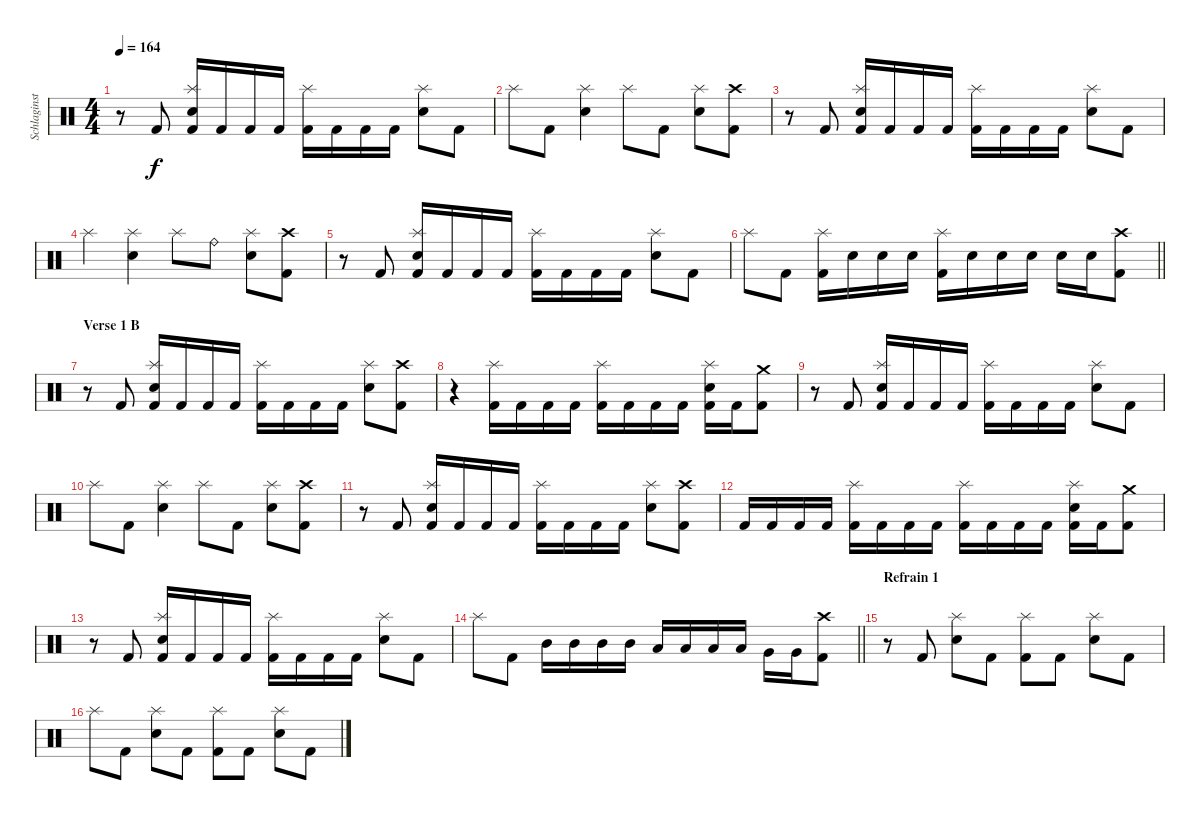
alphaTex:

\track ("Schlaginstrumente - Auswahl" "Schlaginst") {instrument percussion}
\staff {score}
\articulation defaults
\ts (4 4)
\tempo 164
\clef neutral
\ks c
r.8{dy f} "Kick (hit) 2".8 ("Splash (hit)" "Electric Snare (hit)" "Kick (hit) 2").16 "Kick (hit) 2".16 "Kick (hit) 2".16 "Kick (hit) 2".16 ("Splash (hit)" "Kick (hit) 2").16 "Kick (hit) 2".16 "Kick (hit) 2".16 "Kick (hit) 2".16 ("Splash (hit)" "Electric Snare (hit)").8 "Kick (hit) 2".8 |
"Splash (hit)".8 "Kick (hit) 2".8 ("Splash (hit)" "Electric Snare (hit)").4 "Splash (hit)".8 "Kick (hit) 2".8 ("Splash (hit)" "Electric Snare (hit)").8 ("Crash high (hit)" "Kick (hit) 2").8 |
r.8 "Kick (hit) 2".8 ("Splash (hit)" "Electric Snare (hit)" "Kick (hit) 2").16 "Kick (hit) 2".16 "Kick (hit) 2".16 "Kick (hit) 2".16 ("Splash (hit)" "Kick (hit) 2").16 "Kick (hit) 2".16 "Kick (hit) 2".16 "Kick (hit) 2".16 ("Splash (hit)" "Electric Snare (hit)").8 "Kick (hit) 2".8 |
"Splash (hit)".4 ("Splash (hit)" "Electric Snare (hit)").4 "Splash (hit)".8 "Ride (bell)".8 ("Splash (hit)" "Electric Snare (hit)").8 ("Crash high (hit)" "Kick (hit) 2").8 |
r.8 "Kick (hit) 2".8 ("Splash (hit)" "Electric Snare (hit)" "Kick (hit) 2").16 "Kick (hit) 2".16 "Kick (hit) 2".16 "Kick (hit) 2".16 ("Splash (hit)" "Kick (hit) 2").16 "Kick (hit) 2".16 "Kick (hit) 2".16 "Kick (hit) 2".16 ("Splash (hit)" "Electric Snare (hit)").8 "Kick (hit) 2".8 |
\barLineRight lightlight "Splash (hit)".8 "Kick (hit) 2".8
("Splash (hit)" "Kick (hit) 2").16 "Electric Snare (hit)".16 "Electric Snare (hit)".16 "Electric Snare (hit)".16 ("Splash (hit)" "Kick (hit) 2").16 "Electric Snare (hit)".16 "Electric Snare (hit)".16 "Electric Snare (hit)".16 "Electric Snare (hit)".16 "Electric Snare (hit)".16 ("Crash high (hit)" "Kick (hit) 2").8 |
\section ("" "Verse 1 B")
r.8 "Kick (hit) 2".8 ("Splash (hit)" "Electric Snare (hit)" "Kick (hit) 2").16 "Kick (hit) 2".16 "Kick (hit) 2".16 "Kick (hit) 2".16 ("Splash (hit)" "Kick (hit) 2").16 "Kick (hit) 2".16 "Kick (hit) 2".16 "Kick (hit) 2".16 ("Splash (hit)" "Electric Snare (hit)").8 ("Crash high (hit)" "Kick (hit) 2").8 |
r.4 ("Splash (hit)" "Kick (hit) 2").16 "Kick (hit) 2".16 "Kick (hit) 2".16 "Kick (hit) 2".16 ("Splash (hit)" "Kick (hit) 2").16 "Kick (hit) 2".16 "Kick (hit) 2".16 "Kick (hit) 2".16 ("Splash (hit)" "Electric Snare (hit)" "Kick (hit) 2").16 "Kick (hit) 2".16 ("Crash medium (hit)" "Kick (hit) 2").8 |
r.8 "Kick (hit) 2".8 ("Splash (hit)" "Electric Snare (hit)" "Kick (hit) 2").16 "Kick (hit) 2".16 "Kick (hit) 2".16 "Kick (hit) 2".16 ("Splash (hit)" "Kick (hit) 2").16 "Kick (hit) 2".16 "Kick (hit) 2".16 "Kick (hit) 2".16 ("Splash (hit)" "Electric Snare (hit)").8 "Kick (hit) 2".8 |
"Splash (hit)".8 "Kick (hit) 2".8 ("Splash (hit)" "Electric Snare (hit)").4 "Splash (hit)".8 "Kick (hit) 2".8 ("Splash (hit)" "Electric Snare (hit)").8 ("Crash high (hit)" "Kick (hit) 2").8 |
r.8 "Kick (hit) 2".8 ("Splash (hit)" "Electric Snare (hit)" "Kick (hit) 2").16 "Kick (hit) 2".16 "Kick (hit) 2".16 "Kick (hit) 2".16 ("Splash (hit)" "Kick (hit) 2").16 "Kick (hit) 2".16 "Kick (hit) 2".16 "Kick (hit) 2".16 ("Splash (hit)" "Electric Snare (hit)").8 ("Crash high (hit)" "Kick (hit) 2").8 |
"Kick (hit) 2".16 "Kick (hit) 2".16 "Kick (hit) 2".16 "Kick (hit) 2".16 ("Splash (hit)" "Kick (hit) 2").16 "Kick (hit) 2".16 "Kick (hit) 2".16 "Kick (hit) 2".16 ("Splash (hit)" "Kick (hit) 2").16 "Kick (hit) 2".16 "Kick (hit) 2".16 "Kick (hit) 2".16 ("Splash (hit)" "Electric Snare (hit)" "Kick (hit) 2").16 "Kick (hit) 2".16 ("Crash medium (hit)" "Kick (hit) 2").8 |
r.8 "Kick (hit) 2".8 ("Splash (hit)" "Electric Snare (hit)" "Kick (hit) 2").16 "Kick (hit) 2".16 "Kick (hit) 2".16 "Kick (hit) 2".16 ("Splash (hit)" "Kick (hit) 2").16 "Kick (hit) 2".16 "Kick (hit) 2".16 "Kick (hit) 2".16 ("Splash (hit)" "Electric Snare (hit)").8 "Kick (hit) 2".8 |
\barLineRight lightlight "Splash (hit)".8 "Kick (hit) 2".8 "Mid Tom (hit)".16 "Mid Tom (hit)".16 "Mid Tom (hit)".16 "Mid Tom (hit)".16 "Low Tom (hit)".16 "Low Tom (hit)".16 "Low Tom (hit)".16 "Low Tom (hit)".16 "Very Low Tom (hit)".16 "Very Low Tom (hit)".16
("Kick (hit) 2" "Crash high (hit)").8 |
\section ("" "Refrain 1")
r.8 "Kick (hit) 2".8 ("Splash (hit)" "Electric Snare (hit)").8 "Kick (hit) 2".8 ("Splash (hit)" "Kick (hit) 2").8 "Kick (hit) 2".8 ("Splash (hit)" "Electric Snare (hit)").8 "Kick (hit) 2".8 |
"Splash (hit)".8 "Kick (hit) 2".8 ("Splash (hit)" "Electric Snare (hit)").8 "Kick (hit) 2".8 ("Splash (hit)" "Kick (hit) 2").8 "Kick (hit) 2".8 ("Splash (hit)" "Electric Snare (hit)").8 "Kick (hit) 2".8
